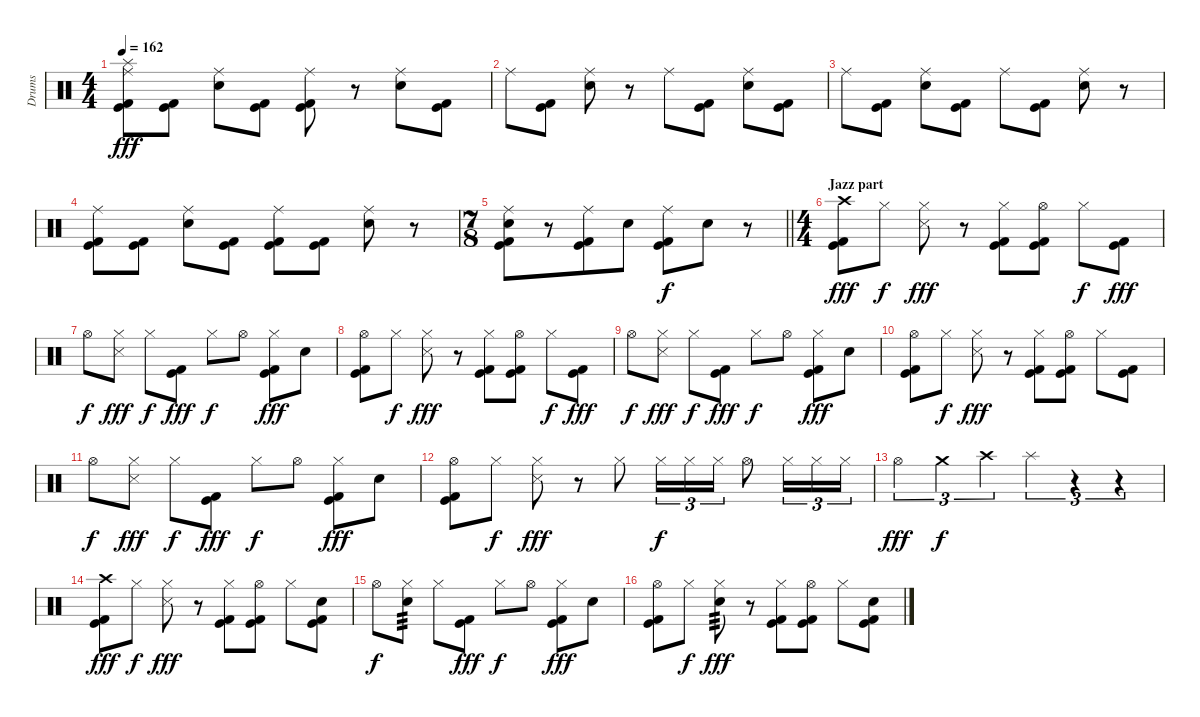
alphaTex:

\track ("Drums" "Drums") {instrument percussion}
\staff {score}
\articulation defaults
\ts (4 4)
\tempo 162
\clef neutral
\ks c
("Splash (hit)" "Ride (middle)" "Kick (hit)" "Kick (hit) 2").8{dy fff} ("Kick (hit)" "Kick (hit) 2").8 ("Ride (middle)" "Electric Snare (hit)").8 ("Kick (hit)" "Kick (hit) 2").8 ("Ride (middle)" "Kick (hit)" "Kick (hit) 2").8 r.8 ("Ride (middle)" "Electric Snare (hit)").8 ("Kick (hit)" "Kick (hit) 2").8 |
"Ride (middle)".8 ("Kick (hit)" "Kick (hit) 2").8 ("Ride (middle)" "Electric Snare (hit)").8 r.8 "Ride (middle)".8 ("Kick (hit)" "Kick (hit) 2").8 ("Ride (middle)" "Electric Snare (hit)").8 ("Kick (hit)" "Kick (hit) 2").8 |
"Ride (middle)".8 ("Kick (hit)" "Kick (hit) 2").8 ("Ride (middle)" "Electric Snare (hit)").8 ("Kick (hit)" "Kick (hit) 2").8 "Ride (middle)".8 ("Kick (hit)" "Kick (hit) 2").8 ("Ride (middle)" "Electric Snare (hit)").8 r.8 |
("Ride (middle)" "Kick (hit)" "Kick (hit) 2").8 ("Kick (hit)" "Kick (hit) 2").8 ("Ride (middle)" "Electric Snare (hit)").8 ("Kick (hit)" "Kick (hit) 2").8 ("Ride (middle)" "Kick (hit)" "Kick (hit) 2").8 ("Kick (hit)" "Kick (hit) 2").8 ("Ride (middle)" "Electric Snare (hit)").8 r.8 |
\ts (7 8)
\barLineRight lightlight
("Ride (middle)" "Electric Snare (hit)" "Kick (hit)" "Kick (hit) 2").8 r.8 ("Ride (middle)" "Kick (hit)" "Kick (hit) 2").8 "Electric Snare (hit)".8 ("Ride (middle)" "Kick (hit)" "Kick (hit) 2").8{dy f} "Electric Snare (hit)".8 r.8 |
\ts (4 4)
\section ("" "Jazz part")
("Crash high (hit)" "Kick (hit)" "Kick (hit) 2").8{dy fff} "Hi-Hat (closed)".8{dy f} ("Hi-Hat (closed)" "Metronome (hit)").8{dy fff} r.8 ("Hi-Hat (closed)" "Kick (hit)" "Kick (hit) 2").8 ("Hi-Hat (open)" "Kick (hit)" "Kick (hit) 2").8 "Hi-Hat (closed)".8{dy f} ("Kick (hit)" "Kick (hit) 2").8{dy fff} |
"Hi-Hat (open)".8{dy f} ("Hi-Hat (closed)" "Metronome (hit)").8{dy fff} "Hi-Hat (closed)".8{dy f} ("Kick (hit)" "Kick (hit) 2").8{dy fff} "Hi-Hat (closed)".8{dy f} "Hi-Hat (open)".8 ("Hi-Hat (closed)" "Kick (hit)" "Kick (hit) 2").8{dy fff} "Electric Snare (hit)".8 |
("Hi-Hat (open)" "Kick (hit)" "Kick (hit) 2").8 "Hi-Hat (closed)".8{dy f} ("Hi-Hat (closed)" "Metronome (hit)").8{dy fff} r.8 ("Hi-Hat (closed)" "Kick (hit)" "Kick (hit) 2").8 ("Hi-Hat (open)" "Kick (hit)" "Kick (hit) 2").8 "Hi-Hat (closed)".8{dy f} ("Kick (hit)" "Kick (hit) 2").8{dy fff} |
"Hi-Hat (open)".8{dy f} ("Hi-Hat (closed)" "Metronome (hit)").8{dy fff} "Hi-Hat (closed)".8{dy f} ("Kick (hit)" "Kick (hit) 2").8{dy fff} "Hi-Hat (closed)".8{dy f} "Hi-Hat (open)".8 ("Hi-Hat (closed)" "Kick (hit)" "Kick (hit) 2").8{dy fff} "Electric Snare (hit)".8 |
("Hi-Hat (open)" "Kick (hit)" "Kick (hit) 2").8 "Hi-Hat (closed)".8{dy f} ("Hi-Hat (closed)" "Metronome (hit)").8{dy fff} r.8 ("Hi-Hat (closed)" "Kick (hit)" "Kick (hit) 2").8 ("Hi-Hat (open)" "Kick (hit)" "Kick (hit) 2").8 "Hi-Hat (closed)".8 ("Kick (hit)" "Kick (hit) 2").8 |
"Hi-Hat (open)".8{dy f} ("Hi-Hat (closed)" "Metronome (hit)").8{dy fff} "Hi-Hat (closed)".8{dy f} ("Kick (hit)" "Kick (hit) 2").8{dy fff} "Hi-Hat (closed)".8{dy f} "Hi-Hat (open)".8 ("Hi-Hat (closed)" "Kick (hit)" "Kick (hit) 2").8{dy fff} "Electric Snare (hit)".8 |
("Hi-Hat (open)" "Kick (hit)" "Kick (hit) 2").8 "Hi-Hat (closed)".8{dy f} ("Hi-Hat (closed)" "Metronome (hit)").8{dy fff} r.8 "Hi-Hat (closed)".8 "Hi-Hat (closed)".16{tu (3 2) dy f} "Hi-Hat (closed)".16{tu (3 2)} "Hi-Hat (closed)".16{tu (3 2)} "Hi-Hat (open)".8 "Hi-Hat (closed)".16{tu (3 2)} "Hi-Hat (closed)".16{tu (3 2)} "Hi-Hat (closed)".16{tu (3 2)} |
"Hi-Hat (open)".4{tu (3 2) dy fff} "Crash medium (hit)".4{tu (3 2) dy f} "Crash high (hit)".4{tu (3 2)} "Splash (hit)".4{tu (3 2)} r.4{tu (3 2)} r.4{tu (3 2)} |
("Crash high (hit)" "Kick (hit)" "Kick (hit) 2").8{dy fff} "Hi-Hat (closed)".8{dy f} ("Hi-Hat (closed)" "Metronome (hit)").8{dy fff} r.8 ("Hi-Hat (closed)" "Kick (hit)" "Kick (hit) 2").8 ("Hi-Hat (open)" "Kick (hit)" "Kick (hit) 2").8 "Hi-Hat (closed)".8 ("Electric Snare (hit)" "Kick (hit)" "Kick (hit) 2").8 |
"Hi-Hat (open)".8{dy f} ("Hi-Hat (closed)" "Electric Snare (hit)").8{tp 3} "Hi-Hat (closed)".8 ("Kick (hit)" "Kick (hit) 2").8{dy fff} "Hi-Hat (closed)".8{dy f} "Hi-Hat (open)".8 ("Hi-Hat (closed)" "Kick (hit)" "Kick (hit) 2").8{dy fff} "Electric Snare (hit)".8 |
("Hi-Hat (open)" "Kick (hit)" "Kick (hit) 2").8 "Hi-Hat (closed)".8{dy f} ("Hi-Hat (closed)" "Electric Snare (hit)").8{tp 3 dy fff} r.8 ("Hi-Hat (closed)" "Kick (hit)" "Kick (hit) 2").8 ("Hi-Hat (open)" "Kick (hit)" "Kick (hit) 2").8 "Hi-Hat (closed)".8 ("Electric Snare (hit)" "Kick (hit)" "Kick (hit) 2").8
